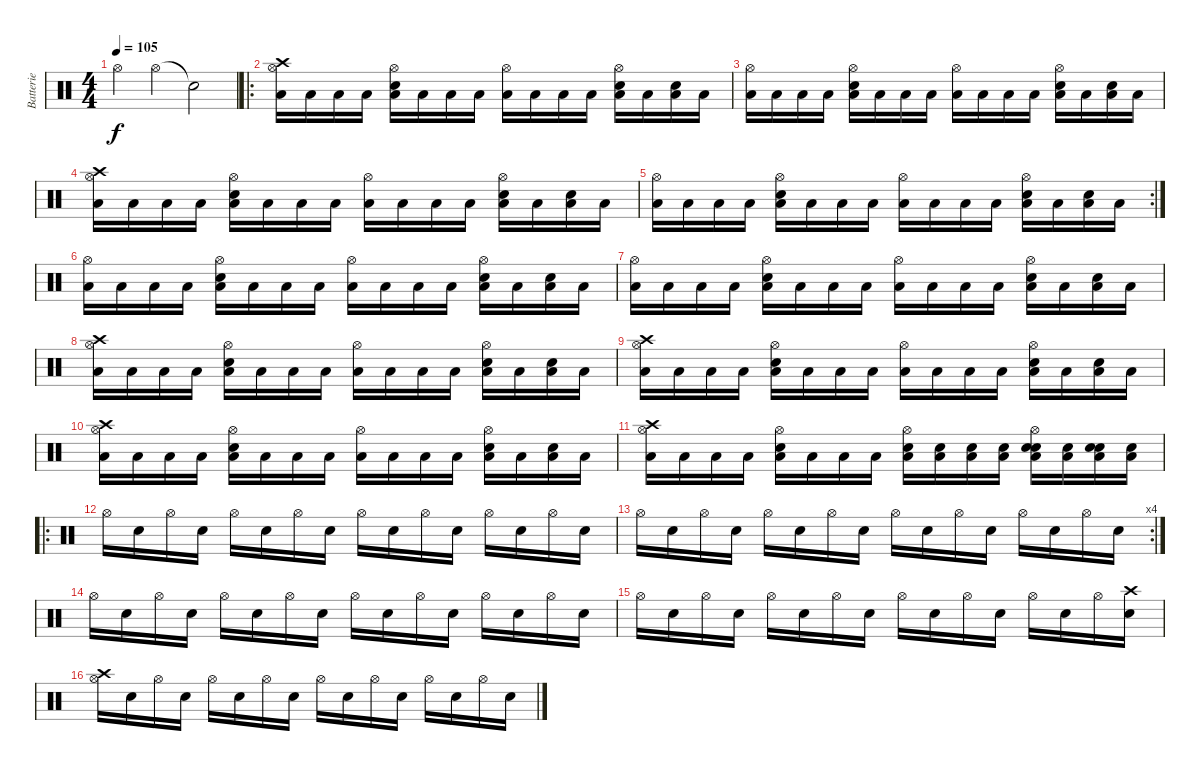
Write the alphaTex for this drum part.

\track ("Batterie" "Batterie") {instrument percussion}
\staff {score}
\articulation defaults
\ts (4 4)
\tempo 105
\clef neutral
\ks c "Hi-Hat (open)".4{dy f} "Hi-Hat (open)".4 "Snare (hit)"{t}.2
|
\ro
("Crash high (hit)" "Hi-Hat (open)" "Low Tom (hit)").16 "Low Tom (hit)".16 "Low Tom (hit)".16 "Low Tom (hit)".16 ("Hi-Hat (open)" "Snare (hit) 2" "Low Tom (hit)").16 "Low Tom (hit)".16 "Low Tom (hit)".16 "Low Tom (hit)".16 ("Hi-Hat (open)" "Low Tom (hit)").16 "Low Tom (hit)".16 "Low Tom (hit)".16 "Low Tom (hit)".16 ("Hi-Hat (open)" "Snare (hit) 2" "Low Tom (hit)").16 "Low Tom (hit)".16 ("Electric Snare (hit)" "Low Tom (hit)").16 "Low Tom (hit)".16 |
("Hi-Hat (open)" "Low Tom (hit)").16 "Low Tom (hit)".16 "Low Tom (hit)".16 "Low Tom (hit)".16 ("Hi-Hat (open)" "Snare (hit) 2" "Low Tom (hit)").16 "Low Tom (hit)".16 "Low Tom (hit)".16 "Low Tom (hit)".16 ("Hi-Hat (open)" "Low Tom (hit)").16 "Low Tom (hit)".16 "Low Tom (hit)".16 "Low Tom (hit)".16 ("Hi-Hat (open)" "Snare (hit) 2" "Low Tom (hit)").16 "Low Tom (hit)".16 ("Electric Snare (hit)" "Low Tom (hit)").16 "Low Tom (hit)".16 |
("Crash high (hit)" "Hi-Hat (open)" "Low Tom (hit)").16 "Low Tom (hit)".16 "Low Tom (hit)".16 "Low Tom (hit)".16 ("Hi-Hat (open)" "Snare (hit) 2" "Low Tom (hit)").16 "Low Tom (hit)".16 "Low Tom (hit)".16 "Low Tom (hit)".16 ("Hi-Hat (open)" "Low Tom (hit)").16 "Low Tom (hit)".16 "Low Tom (hit)".16 "Low Tom (hit)".16 ("Hi-Hat (open)" "Snare (hit) 2" "Low Tom (hit)").16 "Low Tom (hit)".16 ("Electric Snare (hit)" "Low Tom (hit)").16 "Low Tom (hit)".16 |
\rc 2
("Hi-Hat (open)" "Low Tom (hit)").16 "Low Tom (hit)".16 "Low Tom (hit)".16 "Low Tom (hit)".16 ("Hi-Hat (open)" "Snare (hit) 2" "Low Tom (hit)").16 "Low Tom (hit)".16 "Low Tom (hit)".16 "Low Tom (hit)".16 ("Hi-Hat (open)" "Low Tom (hit)").16 "Low Tom (hit)".16 "Low Tom (hit)".16 "Low Tom (hit)".16 ("Hi-Hat (open)" "Snare (hit) 2" "Low Tom (hit)").16 "Low Tom (hit)".16 ("Electric Snare (hit)" "Low Tom (hit)").16 "Low Tom (hit)".16 |
("Hi-Hat (open)" "Low Tom (hit)").16 "Low Tom (hit)".16 "Low Tom (hit)".16 "Low Tom (hit)".16 ("Hi-Hat (open)" "Snare (hit) 2" "Low Tom (hit)").16 "Low Tom (hit)".16 "Low Tom (hit)".16 "Low Tom (hit)".16 ("Hi-Hat (open)" "Low Tom (hit)").16 "Low Tom (hit)".16 "Low Tom (hit)".16 "Low Tom (hit)".16 ("Hi-Hat (open)" "Snare (hit) 2" "Low Tom (hit)").16 "Low Tom (hit)".16 ("Electric Snare (hit)" "Low Tom (hit)").16 "Low Tom (hit)".16 |
("Hi-Hat (open)" "Low Tom (hit)").16 "Low Tom (hit)".16 "Low Tom (hit)".16 "Low Tom (hit)".16 ("Hi-Hat (open)" "Snare (hit) 2" "Low Tom (hit)").16 "Low Tom (hit)".16 "Low Tom (hit)".16 "Low Tom (hit)".16 ("Hi-Hat (open)" "Low Tom (hit)").16 "Low Tom (hit)".16 "Low Tom (hit)".16 "Low Tom (hit)".16 ("Hi-Hat (open)" "Snare (hit) 2" "Low Tom (hit)").16 "Low Tom (hit)".16 ("Electric Snare (hit)" "Low Tom (hit)").16 "Low Tom (hit)".16 |
("Crash high (hit)" "Hi-Hat (open)" "Low Tom (hit)").16 "Low Tom (hit)".16 "Low Tom (hit)".16 "Low Tom (hit)".16 ("Hi-Hat (open)" "Snare (hit) 2" "Low Tom (hit)").16 "Low Tom (hit)".16 "Low Tom (hit)".16 "Low Tom (hit)".16 ("Hi-Hat (open)" "Low Tom (hit)").16 "Low Tom (hit)".16 "Low Tom (hit)".16 "Low Tom (hit)".16 ("Hi-Hat (open)" "Snare (hit) 2" "Low Tom (hit)").16 "Low Tom (hit)".16 ("Electric Snare (hit)" "Low Tom (hit)").16 "Low Tom (hit)".16 |
("Crash high (hit)" "Hi-Hat (open)" "Low Tom (hit)").16 "Low Tom (hit)".16 "Low Tom (hit)".16 "Low Tom (hit)".16 ("Hi-Hat (open)" "Snare (hit) 2" "Low Tom (hit)").16 "Low Tom (hit)".16 "Low Tom (hit)".16 "Low Tom (hit)".16 ("Hi-Hat (open)" "Low Tom (hit)").16 "Low Tom (hit)".16 "Low Tom (hit)".16 "Low Tom (hit)".16 ("Hi-Hat (open)" "Snare (hit) 2" "Low Tom (hit)").16 "Low Tom (hit)".16 ("Electric Snare (hit)" "Low Tom (hit)").16 "Low Tom (hit)".16 |
("Crash high (hit)" "Hi-Hat (open)" "Low Tom (hit)").16 "Low Tom (hit)".16 "Low Tom (hit)".16 "Low Tom (hit)".16 ("Hi-Hat (open)" "Snare (hit) 2" "Low Tom (hit)").16 "Low Tom (hit)".16 "Low Tom (hit)".16 "Low Tom (hit)".16 ("Hi-Hat (open)" "Low Tom (hit)").16 "Low Tom (hit)".16 "Low Tom (hit)".16 "Low Tom (hit)".16 ("Hi-Hat (open)" "Snare (hit) 2" "Low Tom (hit)").16 "Low Tom (hit)".16 ("Electric Snare (hit)" "Low Tom (hit)").16 "Low Tom (hit)".16 |
("Crash high (hit)" "Hi-Hat (open)" "Low Tom (hit)").16 "Low Tom (hit)".16 "Low Tom (hit)".16 "Low Tom (hit)".16 ("Hi-Hat (open)" "Snare (hit) 2" "Low Tom (hit)").16 "Low Tom (hit)".16 "Low Tom (hit)".16 "Low Tom (hit)".16 ("Hi-Hat (open)" "Low Tom (hit)" "Snare (hit) 2").16 ("Low Tom (hit)" "Snare (hit) 2").16 ("Low Tom (hit)" "Snare (hit) 2").16 ("Low Tom (hit)" "Snare (hit) 2").16 ("Hi-Hat (open)" "Snare (hit) 2" "Low Tom (hit)" "Snare (hit) 2").16 ("Low Tom (hit)" "Snare (hit) 2").16 ("Electric Snare (hit)" "Low Tom (hit)" "Snare (hit) 2").16 ("Low Tom (hit)" "Snare (hit) 2").16 |
\ro "Hi-Hat (open)".16 "Snare (hit) 2".16 "Hi-Hat (open)".16 "Snare (hit) 2".16 "Hi-Hat (open)".16 "Snare (hit) 2".16 "Hi-Hat (open)".16 "Snare (hit) 2".16 "Hi-Hat (open)".16 "Snare (hit) 2".16 "Hi-Hat (open)".16 "Snare (hit) 2".16 "Hi-Hat (open)".16 "Snare (hit) 2".16 "Hi-Hat (open)".16 "Snare (hit) 2".16
|
\rc 4 "Hi-Hat (open)".16 "Snare (hit) 2".16 "Hi-Hat (open)".16 "Snare (hit) 2".16 "Hi-Hat (open)".16 "Snare (hit) 2".16 "Hi-Hat (open)".16 "Snare (hit) 2".16 "Hi-Hat (open)".16 "Snare (hit) 2".16 "Hi-Hat (open)".16 "Snare (hit) 2".16 "Hi-Hat (open)".16 "Snare (hit) 2".16 "Hi-Hat (open)".16 "Snare (hit) 2".16
|
"Hi-Hat (open)".16 "Snare (hit) 2".16 "Hi-Hat (open)".16 "Snare (hit) 2".16 "Hi-Hat (open)".16 "Snare (hit) 2".16 "Hi-Hat (open)".16 "Snare (hit) 2".16 "Hi-Hat (open)".16 "Snare (hit) 2".16 "Hi-Hat (open)".16 "Snare (hit) 2".16 "Hi-Hat (open)".16 "Snare (hit) 2".16 "Hi-Hat (open)".16 "Snare (hit) 2".16 |
"Hi-Hat (open)".16 "Snare (hit) 2".16 "Hi-Hat (open)".16 "Snare (hit) 2".16 "Hi-Hat (open)".16 "Snare (hit) 2".16 "Hi-Hat (open)".16 "Snare (hit) 2".16 "Hi-Hat (open)".16 "Snare (hit) 2".16 "Hi-Hat (open)".16 "Snare (hit) 2".16 "Hi-Hat (open)".16 "Snare (hit) 2".16 "Hi-Hat (open)".16 ("Crash high (hit)" "Snare (hit) 2").16 |
("Crash high (hit)" "Hi-Hat (open)").16 "Snare (hit) 2".16 "Hi-Hat (open)".16 "Snare (hit) 2".16 "Hi-Hat (open)".16 "Snare (hit) 2".16 "Hi-Hat (open)".16 "Snare (hit) 2".16 "Hi-Hat (open)".16 "Snare (hit) 2".16 "Hi-Hat (open)".16 "Snare (hit) 2".16 "Hi-Hat (open)".16 "Snare (hit) 2".16 "Hi-Hat (open)".16 "Snare (hit) 2".16
